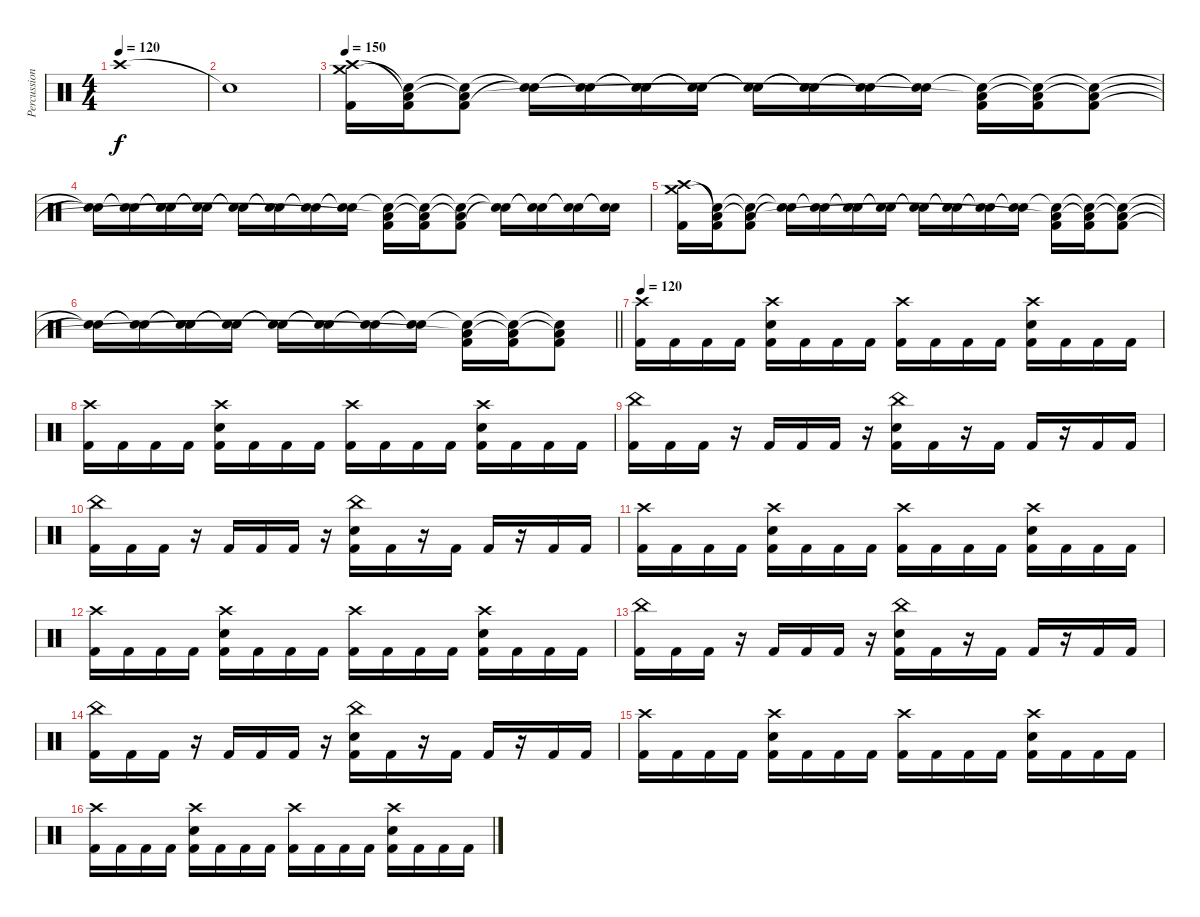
\track ("Percussion" "Percussion") {instrument percussion}
\staff {score}
\articulation defaults
\ts (4 4)
\tempo 120
\clef neutral
\ks c "Crash high (hit)".1{dy f}
|
"Snare (hit)"{t}.1 |
\tempo 150
("Crash medium (hit)" "Kick (hit) 2" "Crash high (hit)").16 ("Snare (hit)"{t} "Kick (hit) 2" "Low Floor Tom (hit)"{t}).16 ("Snare (hit)"{t} "Kick (hit) 2" "Low Floor Tom (hit)"{t}).8 ("Snare (hit)"{t} "Snare (hit)"{t}).16 ("Snare (hit)"{t} "Snare (hit)"{t}).16 ("Snare (hit)"{t} "Snare (hit)"{t}).16 ("Snare (hit)"{t} "Snare (hit)"{t}).16 ("Snare (hit)"{t} "Snare (hit)"{t}).16 ("Snare (hit)"{t} "Snare (hit)"{t}).16 ("Snare (hit)"{t} "Snare (hit)"{t}).16 ("Snare (hit)"{t} "Snare (hit)"{t}).16 ("Snare (hit)"{t} "Kick (hit) 2" "Low Floor Tom (hit)"{t}).16 ("Snare (hit)"{t} "Kick (hit) 2" "Low Floor Tom (hit)"{t}).16 ("Snare (hit)"{t} "Kick (hit) 2" "Low Floor Tom (hit)"{t}).8 |
("Snare (hit)"{t} "Snare (hit)"{t}).16 ("Snare (hit)"{t} "Snare (hit)"{t}).16 ("Snare (hit)"{t} "Snare (hit)"{t}).16 ("Snare (hit)"{t} "Snare (hit)"{t}).16 ("Snare (hit)"{t} "Snare (hit)"{t}).16 ("Snare (hit)"{t} "Snare (hit)"{t}).16 ("Snare (hit)"{t} "Snare (hit)"{t}).16 ("Snare (hit)"{t} "Snare (hit)"{t}).16 ("Snare (hit)"{t} "Kick (hit) 2" "Low Floor Tom (hit)"{t}).16 ("Snare (hit)"{t} "Kick (hit) 2" "Low Floor Tom (hit)"{t}).16 ("Snare (hit)"{t} "Kick (hit) 2" "Low Floor Tom (hit)"{t}).8 ("Snare (hit)"{t} "Snare (hit)"{t}).16 ("Snare (hit)"{t} "Snare (hit)"{t}).16 ("Snare (hit)"{t} "Snare (hit)"{t}).16 ("Snare (hit)"{t} "Snare (hit)"{t}).16 |
("Crash medium (hit)" "Kick (hit) 2" "Crash high (hit)").16 ("Snare (hit)"{t} "Kick (hit) 2" "Low Floor Tom (hit)"{t}).16 ("Snare (hit)"{t} "Kick (hit) 2" "Low Floor Tom (hit)"{t}).8 ("Snare (hit)"{t} "Snare (hit)"{t}).16 ("Snare (hit)"{t} "Snare (hit)"{t}).16 ("Snare (hit)"{t} "Snare (hit)"{t}).16 ("Snare (hit)"{t} "Snare (hit)"{t}).16 ("Snare (hit)"{t} "Snare (hit)"{t}).16 ("Snare (hit)"{t} "Snare (hit)"{t}).16 ("Snare (hit)"{t} "Snare (hit)"{t}).16 ("Snare (hit)"{t} "Snare (hit)"{t}).16 ("Snare (hit)"{t} "Kick (hit) 2" "Low Floor Tom (hit)"{t}).16 ("Snare (hit)"{t} "Kick (hit) 2" "Low Floor Tom (hit)"{t}).16 ("Snare (hit)"{t} "Kick (hit) 2" "Low Floor Tom (hit)"{t}).8 |
\barLineRight lightlight
("Snare (hit)"{t} "Snare (hit)"{t}).16 ("Snare (hit)"{t} "Snare (hit)"{t}).16 ("Snare (hit)"{t} "Snare (hit)"{t}).16 ("Snare (hit)"{t} "Snare (hit)"{t}).16 ("Snare (hit)"{t} "Snare (hit)"{t}).16 ("Snare (hit)"{t} "Snare (hit)"{t}).16 ("Snare (hit)"{t} "Snare (hit)"{t}).16 ("Snare (hit)"{t} "Snare (hit)"{t}).16 ("Snare (hit)"{t} "Kick (hit) 2" "Low Floor Tom (hit)"{t}).16 ("Snare (hit)"{t} "Kick (hit) 2" "Low Floor Tom (hit)"{t}).16 ("Snare (hit)"{t} "Kick (hit) 2" "Low Floor Tom (hit)"{t}).8 |
\tempo 120
("Crash high (hit)" "Kick (hit) 2").16 "Kick (hit) 2".16 "Kick (hit) 2".16 "Kick (hit) 2".16 ("Snare (hit) 2" "Crash high (hit)" "Kick (hit) 2").16 "Kick (hit) 2".16 "Kick (hit) 2".16 "Kick (hit) 2".16 ("Crash high (hit)" "Kick (hit) 2").16 "Kick (hit) 2".16 "Kick (hit) 2".16 "Kick (hit) 2".16 ("Snare (hit) 2" "Crash high (hit)" "Kick (hit) 2").16 "Kick (hit) 2".16 "Kick (hit) 2".16 "Kick (hit) 2".16 |
("Crash high (hit)" "Kick (hit) 2").16 "Kick (hit) 2".16 "Kick (hit) 2".16 "Kick (hit) 2".16 ("Snare (hit) 2" "Crash high (hit)" "Kick (hit) 2").16 "Kick (hit) 2".16 "Kick (hit) 2".16 "Kick (hit) 2".16 ("Crash high (hit)" "Kick (hit) 2").16 "Kick (hit) 2".16 "Kick (hit) 2".16 "Kick (hit) 2".16 ("Snare (hit) 2" "Crash high (hit)" "Kick (hit) 2").16 "Kick (hit) 2".16 "Kick (hit) 2".16 "Kick (hit) 2".16 |
("China (hit)" "Kick (hit) 2").16 "Kick (hit) 2".16 "Kick (hit) 2".16 r.16 "Kick (hit) 2".16 "Kick (hit) 2".16 "Kick (hit) 2".16 r.16 ("Snare (hit) 2" "China (hit)" "Kick (hit) 2").16 "Kick (hit) 2".16 r.16 "Kick (hit) 2".16 "Kick (hit) 2".16 r.16 "Kick (hit) 2".16 "Kick (hit) 2".16 |
("China (hit)" "Kick (hit) 2").16 "Kick (hit) 2".16 "Kick (hit) 2".16 r.16 "Kick (hit) 2".16 "Kick (hit) 2".16 "Kick (hit) 2".16 r.16 ("Snare (hit) 2" "China (hit)" "Kick (hit) 2").16 "Kick (hit) 2".16 r.16 "Kick (hit) 2".16 "Kick (hit) 2".16 r.16 "Kick (hit) 2".16 "Kick (hit) 2".16 |
("Crash high (hit)" "Kick (hit) 2").16 "Kick (hit) 2".16 "Kick (hit) 2".16 "Kick (hit) 2".16 ("Snare (hit) 2" "Crash high (hit)" "Kick (hit) 2").16 "Kick (hit) 2".16 "Kick (hit) 2".16 "Kick (hit) 2".16 ("Crash high (hit)" "Kick (hit) 2").16 "Kick (hit) 2".16 "Kick (hit) 2".16 "Kick (hit) 2".16 ("Snare (hit) 2" "Crash high (hit)" "Kick (hit) 2").16 "Kick (hit) 2".16 "Kick (hit) 2".16 "Kick (hit) 2".16 |
("Crash high (hit)" "Kick (hit) 2").16 "Kick (hit) 2".16 "Kick (hit) 2".16 "Kick (hit) 2".16 ("Snare (hit) 2" "Crash high (hit)" "Kick (hit) 2").16 "Kick (hit) 2".16 "Kick (hit) 2".16 "Kick (hit) 2".16 ("Crash high (hit)" "Kick (hit) 2").16 "Kick (hit) 2".16 "Kick (hit) 2".16 "Kick (hit) 2".16 ("Snare (hit) 2" "Crash high (hit)" "Kick (hit) 2").16 "Kick (hit) 2".16 "Kick (hit) 2".16 "Kick (hit) 2".16 |
("China (hit)" "Kick (hit) 2").16 "Kick (hit) 2".16 "Kick (hit) 2".16 r.16 "Kick (hit) 2".16 "Kick (hit) 2".16 "Kick (hit) 2".16 r.16 ("Snare (hit) 2" "China (hit)" "Kick (hit) 2").16 "Kick (hit) 2".16 r.16 "Kick (hit) 2".16 "Kick (hit) 2".16 r.16 "Kick (hit) 2".16 "Kick (hit) 2".16 |
("China (hit)" "Kick (hit) 2").16 "Kick (hit) 2".16 "Kick (hit) 2".16 r.16 "Kick (hit) 2".16 "Kick (hit) 2".16 "Kick (hit) 2".16 r.16 ("Snare (hit) 2" "China (hit)" "Kick (hit) 2").16 "Kick (hit) 2".16 r.16 "Kick (hit) 2".16 "Kick (hit) 2".16 r.16 "Kick (hit) 2".16 "Kick (hit) 2".16 |
("Crash high (hit)" "Kick (hit) 2").16 "Kick (hit) 2".16 "Kick (hit) 2".16 "Kick (hit) 2".16 ("Snare (hit) 2" "Crash high (hit)" "Kick (hit) 2").16 "Kick (hit) 2".16 "Kick (hit) 2".16 "Kick (hit) 2".16 ("Crash high (hit)" "Kick (hit) 2").16 "Kick (hit) 2".16 "Kick (hit) 2".16 "Kick (hit) 2".16 ("Snare (hit) 2" "Crash high (hit)" "Kick (hit) 2").16 "Kick (hit) 2".16 "Kick (hit) 2".16 "Kick (hit) 2".16 |
("Crash high (hit)" "Kick (hit) 2").16 "Kick (hit) 2".16 "Kick (hit) 2".16 "Kick (hit) 2".16 ("Snare (hit) 2" "Crash high (hit)" "Kick (hit) 2").16 "Kick (hit) 2".16 "Kick (hit) 2".16 "Kick (hit) 2".16 ("Crash high (hit)" "Kick (hit) 2").16 "Kick (hit) 2".16 "Kick (hit) 2".16 "Kick (hit) 2".16 ("Snare (hit) 2" "Crash high (hit)" "Kick (hit) 2").16 "Kick (hit) 2".16 "Kick (hit) 2".16 "Kick (hit) 2".16
